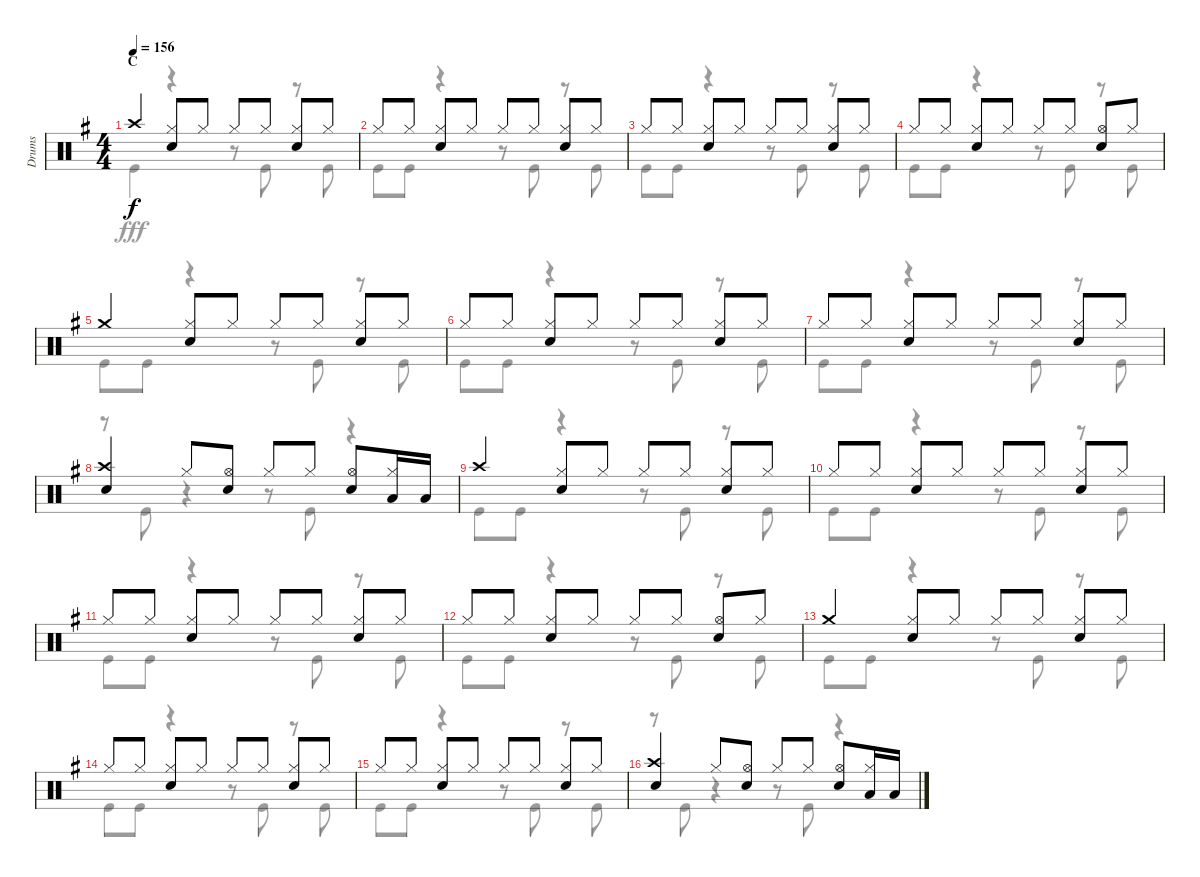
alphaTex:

\track ("Drums" "Drums") {instrument percussion}
\staff {score}
\articulation defaults
\voice
\ts (4 4)
\section ("" "C")
\tempo 156
\clef neutral
\ks g "Crash high (hit)".4{dy f}
("Hi-Hat (closed)" "Snare (hit) 2").8 "Hi-Hat (closed)".8 "Hi-Hat (closed)".8 "Hi-Hat (closed)".8 ("Hi-Hat (closed)" "Snare (hit) 2").8 "Hi-Hat (closed)".8 |
"Hi-Hat (closed)".8 "Hi-Hat (closed)".8 ("Hi-Hat (closed)" "Snare (hit) 2").8 "Hi-Hat (closed)".8 "Hi-Hat (closed)".8 "Hi-Hat (closed)".8 ("Hi-Hat (closed)" "Snare (hit) 2").8 "Hi-Hat (closed)".8 |
"Hi-Hat (closed)".8 "Hi-Hat (closed)".8 ("Hi-Hat (closed)" "Snare (hit) 2").8 "Hi-Hat (closed)".8 "Hi-Hat (closed)".8 "Hi-Hat (closed)".8 ("Hi-Hat (closed)" "Snare (hit) 2").8 "Hi-Hat (closed)".8 |
"Hi-Hat (closed)".8 "Hi-Hat (closed)".8 ("Hi-Hat (closed)" "Snare (hit) 2").8 "Hi-Hat (closed)".8 "Hi-Hat (closed)".8 "Hi-Hat (closed)".8 ("Hi-Hat (open)" "Snare (hit) 2").8 "Hi-Hat (closed)".8 |
"Crash medium (hit)".4 ("Hi-Hat (closed)" "Snare (hit) 2").8 "Hi-Hat (closed)".8 "Hi-Hat (closed)".8 "Hi-Hat (closed)".8 ("Hi-Hat (closed)" "Snare (hit) 2").8 "Hi-Hat (closed)".8 |
"Hi-Hat (closed)".8 "Hi-Hat (closed)".8 ("Hi-Hat (closed)" "Snare (hit) 2").8 "Hi-Hat (closed)".8 "Hi-Hat (closed)".8 "Hi-Hat (closed)".8 ("Hi-Hat (closed)" "Snare (hit) 2").8 "Hi-Hat (closed)".8 |
"Hi-Hat (closed)".8 "Hi-Hat (closed)".8 ("Hi-Hat (closed)" "Snare (hit) 2").8 "Hi-Hat (closed)".8 "Hi-Hat (closed)".8 "Hi-Hat (closed)".8 ("Hi-Hat (closed)" "Snare (hit) 2").8 "Hi-Hat (closed)".8 |
("Crash high (hit)" "Snare (hit) 2").4 "Hi-Hat (closed)".8 ("Hi-Hat (open)" "Snare (hit) 2").8 "Hi-Hat (closed)".8 "Hi-Hat (closed)".8 ("Hi-Hat (open)" "Snare (hit) 2").8 ("Hi-Hat (closed)" "Low Tom (hit)").16 "Low Tom (hit)".16 |
"Crash high (hit)".4 ("Hi-Hat (closed)" "Snare (hit) 2").8 "Hi-Hat (closed)".8 "Hi-Hat (closed)".8 "Hi-Hat (closed)".8 ("Hi-Hat (closed)" "Snare (hit) 2").8 "Hi-Hat (closed)".8 |
"Hi-Hat (closed)".8 "Hi-Hat (closed)".8 ("Hi-Hat (closed)" "Snare (hit) 2").8 "Hi-Hat (closed)".8 "Hi-Hat (closed)".8 "Hi-Hat (closed)".8 ("Hi-Hat (closed)" "Snare (hit) 2").8 "Hi-Hat (closed)".8 |
"Hi-Hat (closed)".8 "Hi-Hat (closed)".8 ("Hi-Hat (closed)" "Snare (hit) 2").8 "Hi-Hat (closed)".8 "Hi-Hat (closed)".8 "Hi-Hat (closed)".8 ("Hi-Hat (closed)" "Snare (hit) 2").8 "Hi-Hat (closed)".8 |
"Hi-Hat (closed)".8 "Hi-Hat (closed)".8 ("Hi-Hat (closed)" "Snare (hit) 2").8 "Hi-Hat (closed)".8 "Hi-Hat (closed)".8 "Hi-Hat (closed)".8 ("Hi-Hat (open)" "Snare (hit) 2").8 "Hi-Hat (closed)".8 |
"Crash medium (hit)".4 ("Hi-Hat (closed)" "Snare (hit) 2").8 "Hi-Hat (closed)".8 "Hi-Hat (closed)".8 "Hi-Hat (closed)".8 ("Hi-Hat (closed)" "Snare (hit) 2").8 "Hi-Hat (closed)".8 |
"Hi-Hat (closed)".8 "Hi-Hat (closed)".8 ("Hi-Hat (closed)" "Snare (hit) 2").8 "Hi-Hat (closed)".8 "Hi-Hat (closed)".8 "Hi-Hat (closed)".8 ("Hi-Hat (closed)" "Snare (hit) 2").8 "Hi-Hat (closed)".8 |
"Hi-Hat (closed)".8 "Hi-Hat (closed)".8 ("Hi-Hat (closed)" "Snare (hit) 2").8 "Hi-Hat (closed)".8 "Hi-Hat (closed)".8 "Hi-Hat (closed)".8 ("Hi-Hat (closed)" "Snare (hit) 2").8 "Hi-Hat (closed)".8 |
("Crash high (hit)" "Snare (hit) 2").4 "Hi-Hat (closed)".8 ("Hi-Hat (open)" "Snare (hit) 2").8 "Hi-Hat (closed)".8 "Hi-Hat (closed)".8 ("Hi-Hat (open)" "Snare (hit) 2").8 ("Hi-Hat (closed)" "Low Tom (hit)").16 "Low Tom (hit)".16
\voice
\clef neutral
\ottava regular
\simile none
\ks g "Kick (hit)".4{dy fff}
r.4 r.8 "Kick (hit)".8 r.8 "Kick (hit)".8 |
"Kick (hit)".8 "Kick (hit)".8 r.4 r.8 "Kick (hit)".8 r.8 "Kick (hit)".8 |
"Kick (hit)".8 "Kick (hit)".8 r.4 r.8 "Kick (hit)".8 r.8 "Kick (hit)".8 |
"Kick (hit)".8 "Kick (hit)".8 r.4 r.8 "Kick (hit)".8 r.8 "Kick (hit)".8 |
"Kick (hit)".8 "Kick (hit)".8 r.4 r.8 "Kick (hit)".8 r.8 "Kick (hit)".8 |
"Kick (hit)".8 "Kick (hit)".8 r.4 r.8 "Kick (hit)".8 r.8 "Kick (hit)".8 |
"Kick (hit)".8 "Kick (hit)".8 r.4 r.8 "Kick (hit)".8 r.8 "Kick (hit)".8 |
r.8 "Kick (hit)".8 r.4 r.8 "Kick (hit)".8 r.4 |
"Kick (hit)".8 "Kick (hit)".8 r.4 r.8 "Kick (hit)".8 r.8 "Kick (hit)".8 |
"Kick (hit)".8 "Kick (hit)".8 r.4 r.8 "Kick (hit)".8 r.8 "Kick (hit)".8 |
"Kick (hit)".8 "Kick (hit)".8 r.4 r.8 "Kick (hit)".8 r.8 "Kick (hit)".8 |
"Kick (hit)".8 "Kick (hit)".8 r.4 r.8 "Kick (hit)".8 r.8 "Kick (hit)".8 |
"Kick (hit)".8 "Kick (hit)".8 r.4 r.8 "Kick (hit)".8 r.8 "Kick (hit)".8 |
"Kick (hit)".8 "Kick (hit)".8 r.4 r.8 "Kick (hit)".8 r.8 "Kick (hit)".8 |
"Kick (hit)".8 "Kick (hit)".8 r.4 r.8 "Kick (hit)".8 r.8 "Kick (hit)".8 |
r.8 "Kick (hit)".8 r.4 r.8 "Kick (hit)".8 r.4
